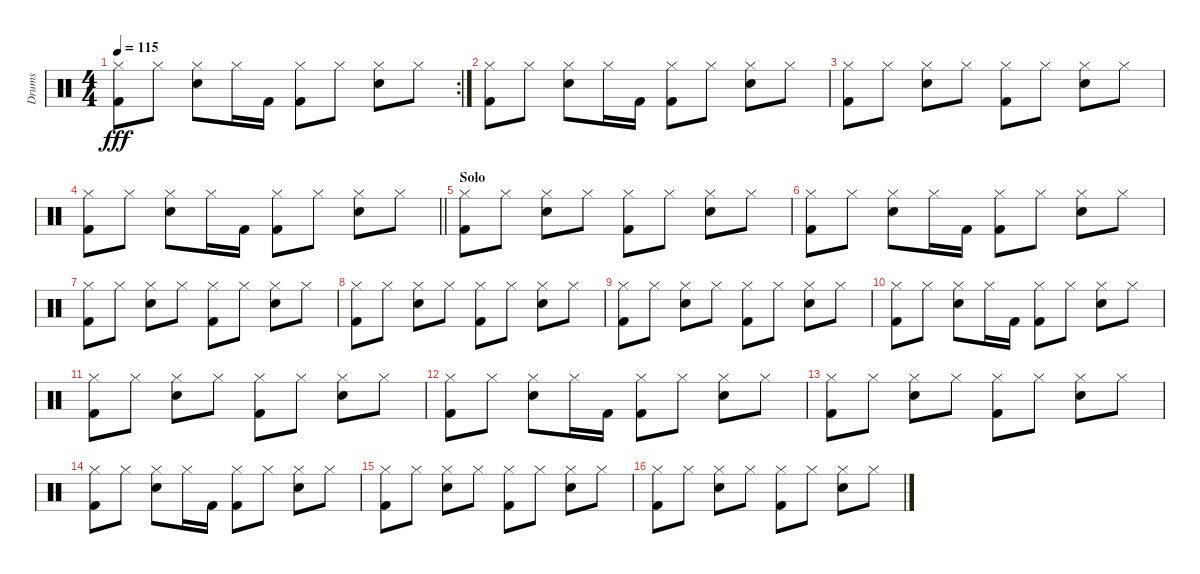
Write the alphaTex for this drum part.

\track ("Drums" "Drums") {instrument percussion}
\staff {score}
\articulation defaults
\rc 2
\ts (4 4)
\tempo 115
\clef neutral
\ks c
("Kick (hit) 2" "Hi-Hat (closed)").8{dy fff} "Hi-Hat (closed)".8 ("Electric Snare (hit)" "Hi-Hat (closed)").8 "Hi-Hat (closed)".16 "Kick (hit) 2".16 ("Kick (hit) 2" "Hi-Hat (closed)").8 "Hi-Hat (closed)".8 ("Electric Snare (hit)" "Hi-Hat (closed)").8 "Hi-Hat (closed)".8 |
("Kick (hit) 2" "Hi-Hat (closed)").8 "Hi-Hat (closed)".8 ("Hi-Hat (closed)" "Electric Snare (hit)").8 "Hi-Hat (closed)".16 "Kick (hit) 2".16 ("Kick (hit) 2" "Hi-Hat (closed)").8 "Hi-Hat (closed)".8 ("Electric Snare (hit)" "Hi-Hat (closed)").8 "Hi-Hat (closed)".8 |
("Kick (hit) 2" "Hi-Hat (closed)").8 "Hi-Hat (closed)".8 ("Electric Snare (hit)" "Hi-Hat (closed)").8 "Hi-Hat (closed)".8 ("Kick (hit) 2" "Hi-Hat (closed)").8 "Hi-Hat (closed)".8 ("Electric Snare (hit)" "Hi-Hat (closed)").8 "Hi-Hat (closed)".8 |
\barLineRight lightlight
("Kick (hit) 2" "Hi-Hat (closed)").8 "Hi-Hat (closed)".8 ("Hi-Hat (closed)" "Electric Snare (hit)").8 "Hi-Hat (closed)".16 "Kick (hit) 2".16 ("Kick (hit) 2" "Hi-Hat (closed)").8 "Hi-Hat (closed)".8 ("Electric Snare (hit)" "Hi-Hat (closed)").8 "Hi-Hat (closed)".8 |
\section ("" "Solo")
("Kick (hit) 2" "Hi-Hat (closed)").8 "Hi-Hat (closed)".8 ("Hi-Hat (closed)" "Electric Snare (hit)").8 "Hi-Hat (closed)".8 ("Kick (hit) 2" "Hi-Hat (closed)").8 "Hi-Hat (closed)".8 ("Hi-Hat (closed)" "Electric Snare (hit)").8 "Hi-Hat (closed)".8 |
("Kick (hit) 2" "Hi-Hat (closed)").8 "Hi-Hat (closed)".8 ("Hi-Hat (closed)" "Electric Snare (hit)").8 "Hi-Hat (closed)".16 "Kick (hit) 2".16 ("Kick (hit) 2" "Hi-Hat (closed)").8 "Hi-Hat (closed)".8 ("Electric Snare (hit)" "Hi-Hat (closed)").8 "Hi-Hat (closed)".8 |
("Kick (hit) 2" "Hi-Hat (closed)").8 "Hi-Hat (closed)".8 ("Electric Snare (hit)" "Hi-Hat (closed)").8 "Hi-Hat (closed)".8 ("Kick (hit) 2" "Hi-Hat (closed)").8 "Hi-Hat (closed)".8 ("Electric Snare (hit)" "Hi-Hat (closed)").8 "Hi-Hat (closed)".8 |
("Kick (hit) 2" "Hi-Hat (closed)").8 "Hi-Hat (closed)".8 ("Hi-Hat (closed)" "Electric Snare (hit)").8 "Hi-Hat (closed)".8 ("Kick (hit) 2" "Hi-Hat (closed)").8 "Hi-Hat (closed)".8 ("Hi-Hat (closed)" "Electric Snare (hit)").8 "Hi-Hat (closed)".8 |
("Kick (hit) 2" "Hi-Hat (closed)").8 "Hi-Hat (closed)".8 ("Hi-Hat (closed)" "Electric Snare (hit)").8 "Hi-Hat (closed)".8 ("Kick (hit) 2" "Hi-Hat (closed)").8 "Hi-Hat (closed)".8 ("Hi-Hat (closed)" "Electric Snare (hit)").8 "Hi-Hat (closed)".8 |
("Kick (hit) 2" "Hi-Hat (closed)").8 "Hi-Hat (closed)".8 ("Hi-Hat (closed)" "Electric Snare (hit)").8 "Hi-Hat (closed)".16 "Kick (hit) 2".16 ("Kick (hit) 2" "Hi-Hat (closed)").8 "Hi-Hat (closed)".8 ("Electric Snare (hit)" "Hi-Hat (closed)").8 "Hi-Hat (closed)".8 |
("Kick (hit) 2" "Hi-Hat (closed)").8 "Hi-Hat (closed)".8 ("Electric Snare (hit)" "Hi-Hat (closed)").8 "Hi-Hat (closed)".8 ("Kick (hit) 2" "Hi-Hat (closed)").8 "Hi-Hat (closed)".8 ("Electric Snare (hit)" "Hi-Hat (closed)").8 "Hi-Hat (closed)".8 |
("Kick (hit) 2" "Hi-Hat (closed)").8 "Hi-Hat (closed)".8 ("Electric Snare (hit)" "Hi-Hat (closed)").8 "Hi-Hat (closed)".16 "Kick (hit) 2".16 ("Kick (hit) 2" "Hi-Hat (closed)").8 "Hi-Hat (closed)".8 ("Electric Snare (hit)" "Hi-Hat (closed)").8 "Hi-Hat (closed)".8 |
("Kick (hit) 2" "Hi-Hat (closed)").8 "Hi-Hat (closed)".8 ("Hi-Hat (closed)" "Electric Snare (hit)").8 "Hi-Hat (closed)".8 ("Kick (hit) 2" "Hi-Hat (closed)").8 "Hi-Hat (closed)".8 ("Hi-Hat (closed)" "Electric Snare (hit)").8 "Hi-Hat (closed)".8 |
("Kick (hit) 2" "Hi-Hat (closed)").8 "Hi-Hat (closed)".8 ("Hi-Hat (closed)" "Electric Snare (hit)").8 "Hi-Hat (closed)".16 "Kick (hit) 2".16 ("Kick (hit) 2" "Hi-Hat (closed)").8 "Hi-Hat (closed)".8 ("Electric Snare (hit)" "Hi-Hat (closed)").8 "Hi-Hat (closed)".8 |
("Kick (hit) 2" "Hi-Hat (closed)").8 "Hi-Hat (closed)".8 ("Electric Snare (hit)" "Hi-Hat (closed)").8 "Hi-Hat (closed)".8 ("Kick (hit) 2" "Hi-Hat (closed)").8 "Hi-Hat (closed)".8 ("Electric Snare (hit)" "Hi-Hat (closed)").8 "Hi-Hat (closed)".8 |
("Kick (hit) 2" "Hi-Hat (closed)").8 "Hi-Hat (closed)".8 ("Hi-Hat (closed)" "Electric Snare (hit)").8 "Hi-Hat (closed)".8 ("Kick (hit) 2" "Hi-Hat (closed)").8 "Hi-Hat (closed)".8 ("Hi-Hat (closed)" "Electric Snare (hit)").8 "Hi-Hat (closed)".8
